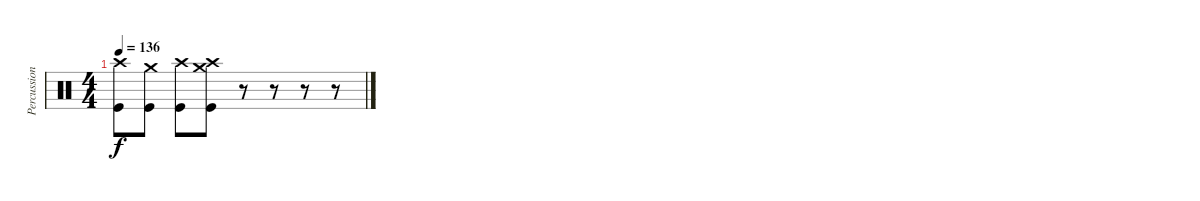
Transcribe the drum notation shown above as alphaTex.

\track ("Percussion" "Percussion") {instrument percussion}
\staff {score}
\articulation defaults
\ts (4 4)
\tempo 136
\clef neutral
\ks c
("Crash high (hit)" "Kick (hit)").8{dy f} ("Crash medium (hit)" "Kick (hit)").8 ("Crash high (hit)" "Kick (hit)").8 ("Crash medium (hit)" "Crash high (hit)" "Kick (hit)").8 r.8 r.8 r.8 r.8
